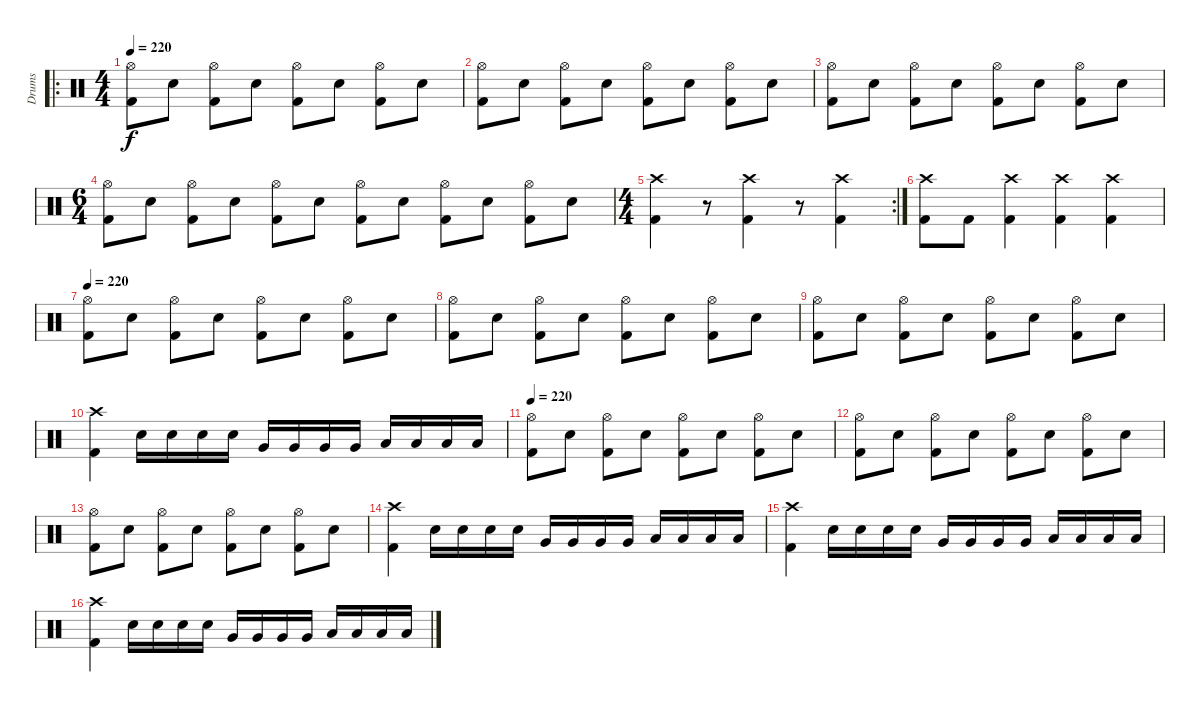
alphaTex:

\track ("Drums" "Drums") {instrument percussion}
\staff {score}
\articulation defaults
\ro
\ts (4 4)
\tempo 200
\tempo 220
\clef neutral
\ks c
("Hi-Hat (open)" "Kick (hit) 2").8{dy f} "Snare (hit) 2".8 ("Hi-Hat (open)" "Kick (hit) 2").8 "Snare (hit) 2".8 ("Hi-Hat (open)" "Kick (hit) 2").8 "Snare (hit) 2".8 ("Hi-Hat (open)" "Kick (hit) 2").8 "Snare (hit) 2".8 |
("Hi-Hat (open)" "Kick (hit) 2").8 "Snare (hit) 2".8 ("Hi-Hat (open)" "Kick (hit) 2").8 "Snare (hit) 2".8 ("Hi-Hat (open)" "Kick (hit) 2").8 "Snare (hit) 2".8 ("Hi-Hat (open)" "Kick (hit) 2").8 "Snare (hit) 2".8 |
("Hi-Hat (open)" "Kick (hit) 2").8 "Snare (hit) 2".8 ("Hi-Hat (open)" "Kick (hit) 2").8 "Snare (hit) 2".8 ("Hi-Hat (open)" "Kick (hit) 2").8 "Snare (hit) 2".8 ("Hi-Hat (open)" "Kick (hit) 2").8 "Snare (hit) 2".8 |
\ts (6 4)
("Hi-Hat (open)" "Kick (hit) 2").8 "Snare (hit) 2".8 ("Hi-Hat (open)" "Kick (hit) 2").8 "Snare (hit) 2".8 ("Hi-Hat (open)" "Kick (hit) 2").8 "Snare (hit) 2".8 ("Hi-Hat (open)" "Kick (hit) 2").8 "Snare (hit) 2".8 ("Hi-Hat (open)" "Kick (hit) 2").8 "Snare (hit) 2".8 ("Hi-Hat (open)" "Kick (hit) 2").8 "Snare (hit) 2".8 |
\rc 2
\ts (4 4)
("Crash high (hit)" "Kick (hit) 2").4 r.8 ("Crash high (hit)" "Kick (hit) 2").4 r.8 ("Crash high (hit)" "Kick (hit) 2").4 |
("Crash high (hit)" "Kick (hit) 2").8 "Kick (hit) 2".8 ("Crash high (hit)" "Kick (hit) 2").4 ("Crash high (hit)" "Kick (hit) 2").4 ("Crash high (hit)" "Kick (hit) 2").4 |
\tempo 220
("Hi-Hat (open)" "Kick (hit) 2").8 "Snare (hit) 2".8 ("Hi-Hat (open)" "Kick (hit) 2").8 "Snare (hit) 2".8 ("Hi-Hat (open)" "Kick (hit) 2").8 "Snare (hit) 2".8 ("Hi-Hat (open)" "Kick (hit) 2").8 "Snare (hit) 2".8 |
("Hi-Hat (open)" "Kick (hit) 2").8 "Snare (hit) 2".8 ("Hi-Hat (open)" "Kick (hit) 2").8 "Snare (hit) 2".8 ("Hi-Hat (open)" "Kick (hit) 2").8 "Snare (hit) 2".8 ("Hi-Hat (open)" "Kick (hit) 2").8 "Snare (hit) 2".8 |
("Hi-Hat (open)" "Kick (hit) 2").8 "Snare (hit) 2".8 ("Hi-Hat (open)" "Kick (hit) 2").8 "Snare (hit) 2".8 ("Hi-Hat (open)" "Kick (hit) 2").8 "Snare (hit) 2".8 ("Hi-Hat (open)" "Kick (hit) 2").8 "Snare (hit) 2".8 |
("Crash high (hit)" "Kick (hit) 2").4 "Snare (hit) 2".16 "Snare (hit) 2".16 "Snare (hit) 2".16 "Snare (hit) 2".16 "Very Low Tom (hit)".16 "Very Low Tom (hit)".16 "Very Low Tom (hit)".16 "Very Low Tom (hit)".16 "Low Floor Tom (hit)".16 "Low Floor Tom (hit)".16 "Low Floor Tom (hit)".16 "Low Floor Tom (hit)".16 |
\tempo 220
("Hi-Hat (open)" "Kick (hit) 2").8 "Snare (hit) 2".8 ("Hi-Hat (open)" "Kick (hit) 2").8 "Snare (hit) 2".8 ("Hi-Hat (open)" "Kick (hit) 2").8 "Snare (hit) 2".8 ("Hi-Hat (open)" "Kick (hit) 2").8 "Snare (hit) 2".8 |
("Hi-Hat (open)" "Kick (hit) 2").8 "Snare (hit) 2".8 ("Hi-Hat (open)" "Kick (hit) 2").8 "Snare (hit) 2".8 ("Hi-Hat (open)" "Kick (hit) 2").8 "Snare (hit) 2".8 ("Hi-Hat (open)" "Kick (hit) 2").8 "Snare (hit) 2".8 |
("Hi-Hat (open)" "Kick (hit) 2").8 "Snare (hit) 2".8 ("Hi-Hat (open)" "Kick (hit) 2").8 "Snare (hit) 2".8 ("Hi-Hat (open)" "Kick (hit) 2").8 "Snare (hit) 2".8 ("Hi-Hat (open)" "Kick (hit) 2").8 "Snare (hit) 2".8 |
("Crash high (hit)" "Kick (hit) 2").4 "Snare (hit) 2".16 "Snare (hit) 2".16 "Snare (hit) 2".16 "Snare (hit) 2".16 "Very Low Tom (hit)".16 "Very Low Tom (hit)".16 "Very Low Tom (hit)".16 "Very Low Tom (hit)".16 "Low Floor Tom (hit)".16 "Low Floor Tom (hit)".16 "Low Floor Tom (hit)".16 "Low Floor Tom (hit)".16 |
("Crash high (hit)" "Kick (hit) 2").4 "Snare (hit) 2".16 "Snare (hit) 2".16 "Snare (hit) 2".16 "Snare (hit) 2".16 "Very Low Tom (hit)".16 "Very Low Tom (hit)".16 "Very Low Tom (hit)".16 "Very Low Tom (hit)".16 "Low Floor Tom (hit)".16 "Low Floor Tom (hit)".16 "Low Floor Tom (hit)".16 "Low Floor Tom (hit)".16 |
("Crash high (hit)" "Kick (hit) 2").4 "Snare (hit) 2".16 "Snare (hit) 2".16 "Snare (hit) 2".16 "Snare (hit) 2".16 "Very Low Tom (hit)".16 "Very Low Tom (hit)".16 "Very Low Tom (hit)".16 "Very Low Tom (hit)".16 "Low Floor Tom (hit)".16 "Low Floor Tom (hit)".16 "Low Floor Tom (hit)".16 "Low Floor Tom (hit)".16
